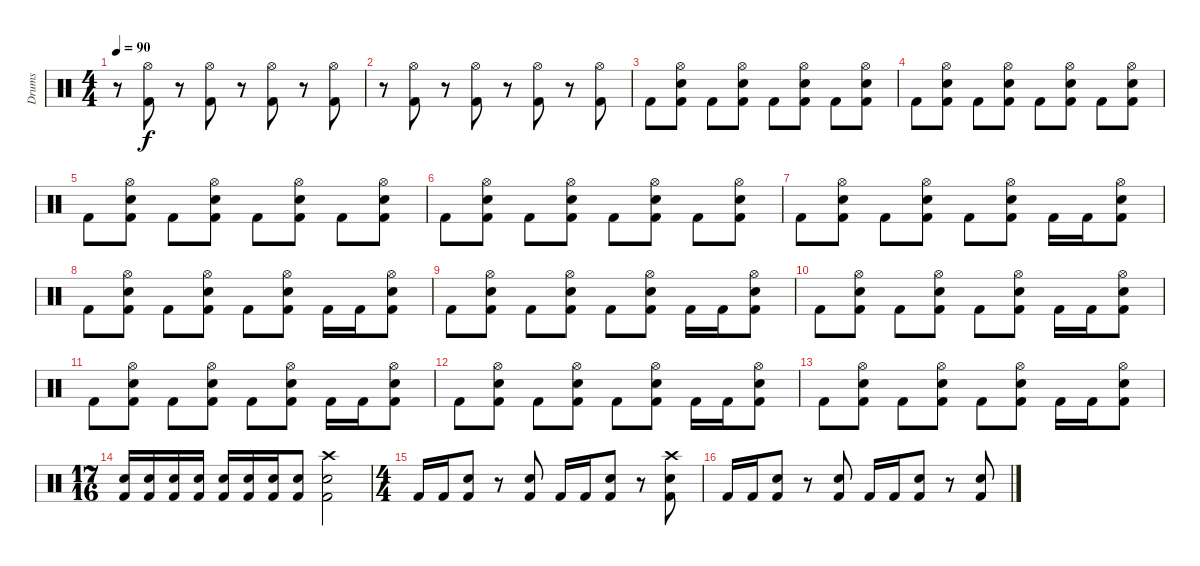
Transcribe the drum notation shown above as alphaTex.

\track ("Drums" "Drums") {instrument percussion}
\staff {score}
\articulation defaults
\ts (4 4)
\tempo 90
\clef neutral
\ks c
r.8{dy f} ("Hi-Hat (open)" "Kick (hit) 2").8 r.8 ("Hi-Hat (open)" "Kick (hit) 2").8 r.8 ("Hi-Hat (open)" "Kick (hit) 2").8 r.8 ("Hi-Hat (open)" "Kick (hit) 2").8 |
r.8 ("Hi-Hat (open)" "Kick (hit) 2").8 r.8 ("Hi-Hat (open)" "Kick (hit) 2").8 r.8 ("Hi-Hat (open)" "Kick (hit) 2").8 r.8 ("Hi-Hat (open)" "Kick (hit) 2").8 |
"Kick (hit) 2".8 ("Hi-Hat (open)" "Electric Snare (hit)" "Kick (hit) 2").8 "Kick (hit) 2".8 ("Hi-Hat (open)" "Electric Snare (hit)" "Kick (hit) 2").8 "Kick (hit) 2".8 ("Hi-Hat (open)" "Electric Snare (hit)" "Kick (hit) 2").8 "Kick (hit) 2".8 ("Hi-Hat (open)" "Electric Snare (hit)" "Kick (hit) 2").8 |
"Kick (hit) 2".8 ("Hi-Hat (open)" "Electric Snare (hit)" "Kick (hit) 2").8 "Kick (hit) 2".8 ("Hi-Hat (open)" "Electric Snare (hit)" "Kick (hit) 2").8 "Kick (hit) 2".8 ("Hi-Hat (open)" "Electric Snare (hit)" "Kick (hit) 2").8 "Kick (hit) 2".8 ("Hi-Hat (open)" "Electric Snare (hit)" "Kick (hit) 2").8 |
"Kick (hit) 2".8 ("Hi-Hat (open)" "Electric Snare (hit)" "Kick (hit) 2").8 "Kick (hit) 2".8 ("Hi-Hat (open)" "Electric Snare (hit)" "Kick (hit) 2").8 "Kick (hit) 2".8 ("Hi-Hat (open)" "Electric Snare (hit)" "Kick (hit) 2").8 "Kick (hit) 2".8 ("Hi-Hat (open)" "Electric Snare (hit)" "Kick (hit) 2").8 |
"Kick (hit) 2".8 ("Hi-Hat (open)" "Electric Snare (hit)" "Kick (hit) 2").8 "Kick (hit) 2".8 ("Hi-Hat (open)" "Electric Snare (hit)" "Kick (hit) 2").8 "Kick (hit) 2".8 ("Hi-Hat (open)" "Electric Snare (hit)" "Kick (hit) 2").8 "Kick (hit) 2".8 ("Hi-Hat (open)" "Electric Snare (hit)" "Kick (hit) 2").8 |
"Kick (hit) 2".8 ("Hi-Hat (open)" "Electric Snare (hit)" "Kick (hit) 2").8 "Kick (hit) 2".8 ("Hi-Hat (open)" "Electric Snare (hit)" "Kick (hit) 2").8 "Kick (hit) 2".8 ("Hi-Hat (open)" "Electric Snare (hit)" "Kick (hit) 2").8 "Kick (hit) 2".16 "Kick (hit) 2".16 ("Hi-Hat (open)" "Electric Snare (hit)" "Kick (hit) 2").8 |
"Kick (hit) 2".8 ("Hi-Hat (open)" "Electric Snare (hit)" "Kick (hit) 2").8 "Kick (hit) 2".8 ("Hi-Hat (open)" "Electric Snare (hit)" "Kick (hit) 2").8 "Kick (hit) 2".8 ("Hi-Hat (open)" "Electric Snare (hit)" "Kick (hit) 2").8 "Kick (hit) 2".16 "Kick (hit) 2".16 ("Hi-Hat (open)" "Electric Snare (hit)" "Kick (hit) 2").8 |
"Kick (hit) 2".8 ("Hi-Hat (open)" "Electric Snare (hit)" "Kick (hit) 2").8 "Kick (hit) 2".8 ("Hi-Hat (open)" "Electric Snare (hit)" "Kick (hit) 2").8 "Kick (hit) 2".8 ("Hi-Hat (open)" "Electric Snare (hit)" "Kick (hit) 2").8 "Kick (hit) 2".16 "Kick (hit) 2".16 ("Hi-Hat (open)" "Electric Snare (hit)" "Kick (hit) 2").8 |
"Kick (hit) 2".8 ("Hi-Hat (open)" "Electric Snare (hit)" "Kick (hit) 2").8 "Kick (hit) 2".8 ("Hi-Hat (open)" "Electric Snare (hit)" "Kick (hit) 2").8 "Kick (hit) 2".8 ("Hi-Hat (open)" "Electric Snare (hit)" "Kick (hit) 2").8 "Kick (hit) 2".16 "Kick (hit) 2".16 ("Hi-Hat (open)" "Electric Snare (hit)" "Kick (hit) 2").8 |
"Kick (hit) 2".8 ("Hi-Hat (open)" "Electric Snare (hit)" "Kick (hit) 2").8 "Kick (hit) 2".8 ("Hi-Hat (open)" "Electric Snare (hit)" "Kick (hit) 2").8 "Kick (hit) 2".8 ("Hi-Hat (open)" "Electric Snare (hit)" "Kick (hit) 2").8 "Kick (hit) 2".16 "Kick (hit) 2".16 ("Hi-Hat (open)" "Electric Snare (hit)" "Kick (hit) 2").8 |
"Kick (hit) 2".8 ("Hi-Hat (open)" "Electric Snare (hit)" "Kick (hit) 2").8 "Kick (hit) 2".8 ("Hi-Hat (open)" "Electric Snare (hit)" "Kick (hit) 2").8 "Kick (hit) 2".8 ("Hi-Hat (open)" "Electric Snare (hit)" "Kick (hit) 2").8 "Kick (hit) 2".16 "Kick (hit) 2".16 ("Hi-Hat (open)" "Electric Snare (hit)" "Kick (hit) 2").8 |
"Kick (hit) 2".8 ("Hi-Hat (open)" "Electric Snare (hit)" "Kick (hit) 2").8 "Kick (hit) 2".8 ("Hi-Hat (open)" "Electric Snare (hit)" "Kick (hit) 2").8 "Kick (hit) 2".8 ("Hi-Hat (open)" "Electric Snare (hit)" "Kick (hit) 2").8 "Kick (hit) 2".16 "Kick (hit) 2".16 ("Hi-Hat (open)" "Electric Snare (hit)" "Kick (hit) 2").8 |
\ts (17 16)
("Electric Snare (hit)" "Kick (hit) 2").16 ("Electric Snare (hit)" "Kick (hit) 2").16 ("Electric Snare (hit)" "Kick (hit) 2").16 ("Electric Snare (hit)" "Kick (hit) 2").16 ("Electric Snare (hit)" "Kick (hit) 2").16 ("Electric Snare (hit)" "Kick (hit) 2").16 ("Electric Snare (hit)" "Kick (hit) 2").16 ("Electric Snare (hit)" "Kick (hit) 2").8 ("Crash high (hit)" "Electric Snare (hit)" "Kick (hit) 2").2 |
\ts (4 4)
"Kick (hit) 2".16 "Kick (hit) 2".16 ("Electric Snare (hit)" "Kick (hit) 2").8 r.8 ("Electric Snare (hit)" "Kick (hit) 2").8 "Kick (hit) 2".16 "Kick (hit) 2".16 ("Electric Snare (hit)" "Kick (hit) 2").8 r.8 ("Crash high (hit)" "Electric Snare (hit)" "Kick (hit) 2").8 |
"Kick (hit) 2".16 "Kick (hit) 2".16 ("Electric Snare (hit)" "Kick (hit) 2").8 r.8 ("Electric Snare (hit)" "Kick (hit) 2").8 "Kick (hit) 2".16 "Kick (hit) 2".16 ("Electric Snare (hit)" "Kick (hit) 2").8 r.8 ("Electric Snare (hit)" "Kick (hit) 2").8
